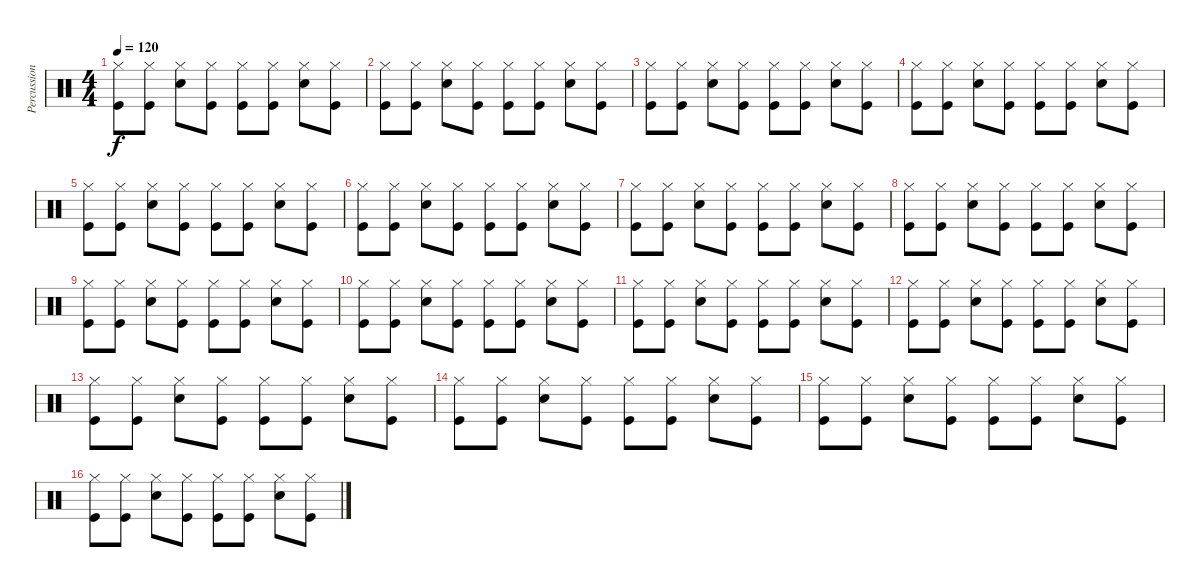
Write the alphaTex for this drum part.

\track ("Percussion" "Percussion") {instrument percussion}
\staff {score}
\articulation defaults
\ts (4 4)
\tempo 120
\clef neutral
\ks c
("Hi-Hat (closed)" "Kick (hit)").8{dy f} ("Hi-Hat (closed)" "Kick (hit)").8 ("Hi-Hat (closed)" "Snare (hit) 2").8 ("Hi-Hat (closed)" "Kick (hit)").8 ("Hi-Hat (closed)" "Kick (hit)").8 ("Hi-Hat (closed)" "Kick (hit)").8 ("Hi-Hat (closed)" "Snare (hit) 2").8 ("Hi-Hat (closed)" "Kick (hit)").8 |
("Hi-Hat (closed)" "Kick (hit)").8 ("Hi-Hat (closed)" "Kick (hit)").8 ("Hi-Hat (closed)" "Snare (hit) 2").8 ("Hi-Hat (closed)" "Kick (hit)").8 ("Hi-Hat (closed)" "Kick (hit)").8 ("Hi-Hat (closed)" "Kick (hit)").8 ("Hi-Hat (closed)" "Snare (hit) 2").8 ("Hi-Hat (closed)" "Kick (hit)").8 |
("Hi-Hat (closed)" "Kick (hit)").8 ("Hi-Hat (closed)" "Kick (hit)").8 ("Hi-Hat (closed)" "Snare (hit) 2").8 ("Hi-Hat (closed)" "Kick (hit)").8 ("Hi-Hat (closed)" "Kick (hit)").8 ("Hi-Hat (closed)" "Kick (hit)").8 ("Hi-Hat (closed)" "Snare (hit) 2").8 ("Hi-Hat (closed)" "Kick (hit)").8 |
("Hi-Hat (closed)" "Kick (hit)").8 ("Hi-Hat (closed)" "Kick (hit)").8 ("Hi-Hat (closed)" "Snare (hit) 2").8 ("Hi-Hat (closed)" "Kick (hit)").8 ("Hi-Hat (closed)" "Kick (hit)").8 ("Hi-Hat (closed)" "Kick (hit)").8 ("Hi-Hat (closed)" "Snare (hit) 2").8 ("Hi-Hat (closed)" "Kick (hit)").8 |
("Hi-Hat (closed)" "Kick (hit)").8 ("Hi-Hat (closed)" "Kick (hit)").8 ("Hi-Hat (closed)" "Snare (hit) 2").8 ("Hi-Hat (closed)" "Kick (hit)").8 ("Hi-Hat (closed)" "Kick (hit)").8 ("Hi-Hat (closed)" "Kick (hit)").8 ("Hi-Hat (closed)" "Snare (hit) 2").8 ("Hi-Hat (closed)" "Kick (hit)").8 |
("Hi-Hat (closed)" "Kick (hit)").8 ("Hi-Hat (closed)" "Kick (hit)").8 ("Hi-Hat (closed)" "Snare (hit) 2").8 ("Hi-Hat (closed)" "Kick (hit)").8 ("Hi-Hat (closed)" "Kick (hit)").8 ("Hi-Hat (closed)" "Kick (hit)").8 ("Hi-Hat (closed)" "Snare (hit) 2").8 ("Hi-Hat (closed)" "Kick (hit)").8 |
("Hi-Hat (closed)" "Kick (hit)").8 ("Hi-Hat (closed)" "Kick (hit)").8 ("Hi-Hat (closed)" "Snare (hit) 2").8 ("Hi-Hat (closed)" "Kick (hit)").8 ("Hi-Hat (closed)" "Kick (hit)").8 ("Hi-Hat (closed)" "Kick (hit)").8 ("Hi-Hat (closed)" "Snare (hit) 2").8 ("Hi-Hat (closed)" "Kick (hit)").8 |
("Hi-Hat (closed)" "Kick (hit)").8 ("Hi-Hat (closed)" "Kick (hit)").8 ("Hi-Hat (closed)" "Snare (hit) 2").8 ("Hi-Hat (closed)" "Kick (hit)").8 ("Hi-Hat (closed)" "Kick (hit)").8 ("Hi-Hat (closed)" "Kick (hit)").8 ("Hi-Hat (closed)" "Snare (hit) 2").8 ("Hi-Hat (closed)" "Kick (hit)").8 |
("Hi-Hat (closed)" "Kick (hit)").8 ("Hi-Hat (closed)" "Kick (hit)").8 ("Hi-Hat (closed)" "Snare (hit) 2").8 ("Hi-Hat (closed)" "Kick (hit)").8 ("Hi-Hat (closed)" "Kick (hit)").8 ("Hi-Hat (closed)" "Kick (hit)").8 ("Hi-Hat (closed)" "Snare (hit) 2").8 ("Hi-Hat (closed)" "Kick (hit)").8 |
("Hi-Hat (closed)" "Kick (hit)").8 ("Hi-Hat (closed)" "Kick (hit)").8 ("Hi-Hat (closed)" "Snare (hit) 2").8 ("Hi-Hat (closed)" "Kick (hit)").8 ("Hi-Hat (closed)" "Kick (hit)").8 ("Hi-Hat (closed)" "Kick (hit)").8 ("Hi-Hat (closed)" "Snare (hit) 2").8 ("Hi-Hat (closed)" "Kick (hit)").8 |
("Hi-Hat (closed)" "Kick (hit)").8 ("Hi-Hat (closed)" "Kick (hit)").8 ("Hi-Hat (closed)" "Snare (hit) 2").8 ("Hi-Hat (closed)" "Kick (hit)").8 ("Hi-Hat (closed)" "Kick (hit)").8 ("Hi-Hat (closed)" "Kick (hit)").8 ("Hi-Hat (closed)" "Snare (hit) 2").8 ("Hi-Hat (closed)" "Kick (hit)").8 |
("Hi-Hat (closed)" "Kick (hit)").8 ("Hi-Hat (closed)" "Kick (hit)").8 ("Hi-Hat (closed)" "Snare (hit) 2").8 ("Hi-Hat (closed)" "Kick (hit)").8 ("Hi-Hat (closed)" "Kick (hit)").8 ("Hi-Hat (closed)" "Kick (hit)").8 ("Hi-Hat (closed)" "Snare (hit) 2").8 ("Hi-Hat (closed)" "Kick (hit)").8 |
("Hi-Hat (closed)" "Kick (hit)").8 ("Hi-Hat (closed)" "Kick (hit)").8 ("Hi-Hat (closed)" "Snare (hit) 2").8 ("Hi-Hat (closed)" "Kick (hit)").8 ("Hi-Hat (closed)" "Kick (hit)").8 ("Hi-Hat (closed)" "Kick (hit)").8 ("Hi-Hat (closed)" "Snare (hit) 2").8 ("Hi-Hat (closed)" "Kick (hit)").8 |
("Hi-Hat (closed)" "Kick (hit)").8 ("Hi-Hat (closed)" "Kick (hit)").8 ("Hi-Hat (closed)" "Snare (hit) 2").8 ("Hi-Hat (closed)" "Kick (hit)").8 ("Hi-Hat (closed)" "Kick (hit)").8 ("Hi-Hat (closed)" "Kick (hit)").8 ("Hi-Hat (closed)" "Snare (hit) 2").8 ("Hi-Hat (closed)" "Kick (hit)").8 |
("Hi-Hat (closed)" "Kick (hit)").8 ("Hi-Hat (closed)" "Kick (hit)").8 ("Hi-Hat (closed)" "Snare (hit) 2").8 ("Hi-Hat (closed)" "Kick (hit)").8 ("Hi-Hat (closed)" "Kick (hit)").8 ("Hi-Hat (closed)" "Kick (hit)").8 ("Hi-Hat (closed)" "Snare (hit) 2").8 ("Hi-Hat (closed)" "Kick (hit)").8 |
("Hi-Hat (closed)" "Kick (hit)").8 ("Hi-Hat (closed)" "Kick (hit)").8 ("Hi-Hat (closed)" "Snare (hit) 2").8 ("Hi-Hat (closed)" "Kick (hit)").8 ("Hi-Hat (closed)" "Kick (hit)").8 ("Hi-Hat (closed)" "Kick (hit)").8 ("Hi-Hat (closed)" "Snare (hit) 2").8 ("Hi-Hat (closed)" "Kick (hit)").8
